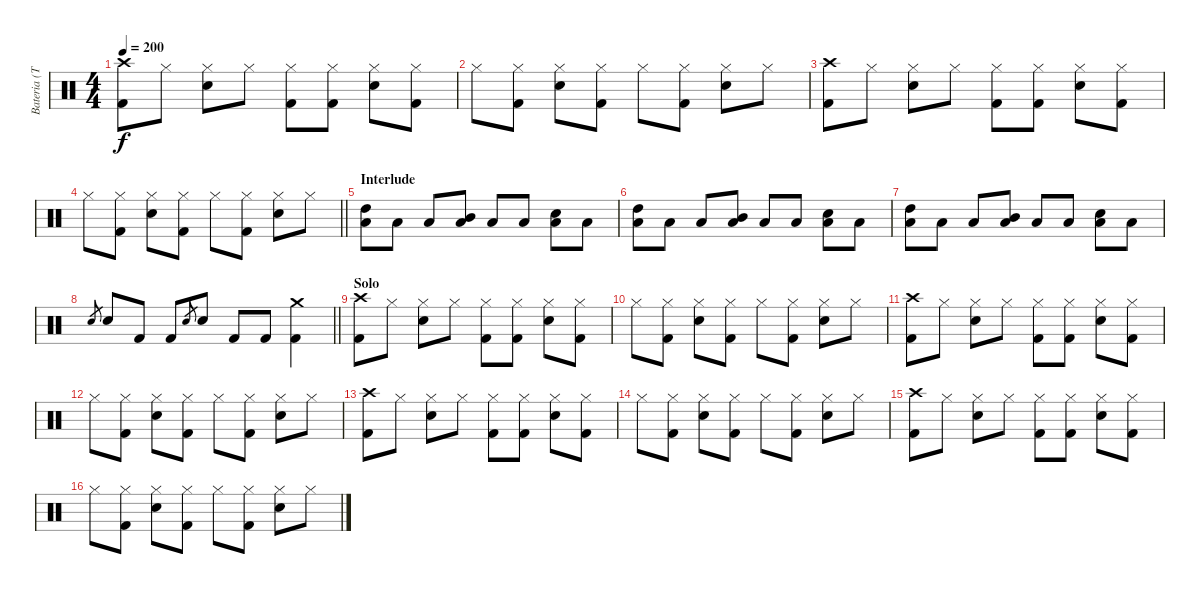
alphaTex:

\track ("Bateria (Tré)" "Bateria (T") {instrument percussion}
\staff {score}
\articulation defaults
\ts (4 4)
\tempo 200
\clef neutral
\ks c
("Crash high (hit)" "Kick (hit) 2").8{dy f} "Hi-Hat (closed)".8 ("Hi-Hat (closed)" "Electric Snare (hit)").8 "Hi-Hat (closed)".8 ("Hi-Hat (closed)" "Kick (hit) 2").8 ("Hi-Hat (closed)" "Kick (hit) 2").8 ("Hi-Hat (closed)" "Electric Snare (hit)").8 ("Hi-Hat (closed)" "Kick (hit) 2").8 |
"Hi-Hat (closed)".8 ("Hi-Hat (closed)" "Kick (hit) 2").8 ("Hi-Hat (closed)" "Electric Snare (hit)").8 ("Hi-Hat (closed)" "Kick (hit) 2").8 "Hi-Hat (closed)".8 ("Hi-Hat (closed)" "Kick (hit) 2").8 ("Hi-Hat (closed)" "Electric Snare (hit)").8 "Hi-Hat (closed)".8 |
("Crash high (hit)" "Kick (hit) 2").8 "Hi-Hat (closed)".8 ("Hi-Hat (closed)" "Electric Snare (hit)").8 "Hi-Hat (closed)".8 ("Hi-Hat (closed)" "Kick (hit) 2").8 ("Hi-Hat (closed)" "Kick (hit) 2").8 ("Hi-Hat (closed)" "Electric Snare (hit)").8 ("Hi-Hat (closed)" "Kick (hit) 2").8 |
\barLineRight lightlight "Hi-Hat (closed)".8
("Hi-Hat (closed)" "Kick (hit) 2").8 ("Hi-Hat (closed)" "Electric Snare (hit)").8 ("Hi-Hat (closed)" "Kick (hit) 2").8 "Hi-Hat (closed)".8 ("Hi-Hat (closed)" "Kick (hit) 2").8 ("Hi-Hat (closed)" "Electric Snare (hit)").8 "Hi-Hat (closed)".8 |
\section ("" "Interlude")
("Low Floor Tom (hit)" "High Tom (hit)").8 "Low Floor Tom (hit)".8 "Low Floor Tom (hit)".8 ("Low Floor Tom (hit)" "Mid Tom (hit)").8 "Low Floor Tom (hit)".8 "Low Floor Tom (hit)".8 ("Low Floor Tom (hit)" "Electric Snare (hit)").8 "Low Floor Tom (hit)".8 |
("Low Floor Tom (hit)" "High Tom (hit)").8 "Low Floor Tom (hit)".8 "Low Floor Tom (hit)".8 ("Low Floor Tom (hit)" "Mid Tom (hit)").8 "Low Floor Tom (hit)".8 "Low Floor Tom (hit)".8 ("Low Floor Tom (hit)" "Electric Snare (hit)").8 "Low Floor Tom (hit)".8 |
("Low Floor Tom (hit)" "High Tom (hit)").8 "Low Floor Tom (hit)".8 "Low Floor Tom (hit)".8 ("Low Floor Tom (hit)" "Mid Tom (hit)").8 "Low Floor Tom (hit)".8 "Low Floor Tom (hit)".8 ("Low Floor Tom (hit)" "Electric Snare (hit)").8 "Low Floor Tom (hit)".8 |
\barLineRight lightlight "Electric Snare (hit)".8{gr} "Electric Snare (hit)".8 "Kick (hit) 2".8 "Kick (hit) 2".8 "Electric Snare (hit)".8{gr} "Electric Snare (hit)".8 "Kick (hit) 2".8 "Kick (hit) 2".8
("Kick (hit) 2" "Crash medium (hit)").4 |
\section ("" "Solo")
("Crash high (hit)" "Kick (hit) 2").8 "Hi-Hat (closed)".8 ("Hi-Hat (closed)" "Electric Snare (hit)").8 "Hi-Hat (closed)".8 ("Hi-Hat (closed)" "Kick (hit) 2").8 ("Hi-Hat (closed)" "Kick (hit) 2").8 ("Hi-Hat (closed)" "Electric Snare (hit)").8 ("Hi-Hat (closed)" "Kick (hit) 2").8 |
"Hi-Hat (closed)".8 ("Hi-Hat (closed)" "Kick (hit) 2").8 ("Hi-Hat (closed)" "Electric Snare (hit)").8 ("Hi-Hat (closed)" "Kick (hit) 2").8 "Hi-Hat (closed)".8 ("Hi-Hat (closed)" "Kick (hit) 2").8 ("Hi-Hat (closed)" "Electric Snare (hit)").8 "Hi-Hat (closed)".8 |
("Crash high (hit)" "Kick (hit) 2").8 "Hi-Hat (closed)".8 ("Hi-Hat (closed)" "Electric Snare (hit)").8 "Hi-Hat (closed)".8 ("Hi-Hat (closed)" "Kick (hit) 2").8 ("Hi-Hat (closed)" "Kick (hit) 2").8 ("Hi-Hat (closed)" "Electric Snare (hit)").8 ("Hi-Hat (closed)" "Kick (hit) 2").8 |
"Hi-Hat (closed)".8 ("Hi-Hat (closed)" "Kick (hit) 2").8 ("Hi-Hat (closed)" "Electric Snare (hit)").8 ("Hi-Hat (closed)" "Kick (hit) 2").8 "Hi-Hat (closed)".8 ("Hi-Hat (closed)" "Kick (hit) 2").8 ("Hi-Hat (closed)" "Electric Snare (hit)").8 "Hi-Hat (closed)".8 |
("Crash high (hit)" "Kick (hit) 2").8 "Hi-Hat (closed)".8 ("Hi-Hat (closed)" "Electric Snare (hit)").8 "Hi-Hat (closed)".8 ("Hi-Hat (closed)" "Kick (hit) 2").8 ("Hi-Hat (closed)" "Kick (hit) 2").8 ("Hi-Hat (closed)" "Electric Snare (hit)").8 ("Hi-Hat (closed)" "Kick (hit) 2").8 |
"Hi-Hat (closed)".8 ("Hi-Hat (closed)" "Kick (hit) 2").8 ("Hi-Hat (closed)" "Electric Snare (hit)").8 ("Hi-Hat (closed)" "Kick (hit) 2").8 "Hi-Hat (closed)".8 ("Hi-Hat (closed)" "Kick (hit) 2").8 ("Hi-Hat (closed)" "Electric Snare (hit)").8 "Hi-Hat (closed)".8 |
("Crash high (hit)" "Kick (hit) 2").8 "Hi-Hat (closed)".8 ("Hi-Hat (closed)" "Electric Snare (hit)").8 "Hi-Hat (closed)".8 ("Hi-Hat (closed)" "Kick (hit) 2").8 ("Hi-Hat (closed)" "Kick (hit) 2").8 ("Hi-Hat (closed)" "Electric Snare (hit)").8 ("Hi-Hat (closed)" "Kick (hit) 2").8 |
"Hi-Hat (closed)".8 ("Hi-Hat (closed)" "Kick (hit) 2").8 ("Hi-Hat (closed)" "Electric Snare (hit)").8 ("Hi-Hat (closed)" "Kick (hit) 2").8 "Hi-Hat (closed)".8 ("Hi-Hat (closed)" "Kick (hit) 2").8 ("Hi-Hat (closed)" "Electric Snare (hit)").8 "Hi-Hat (closed)".8
